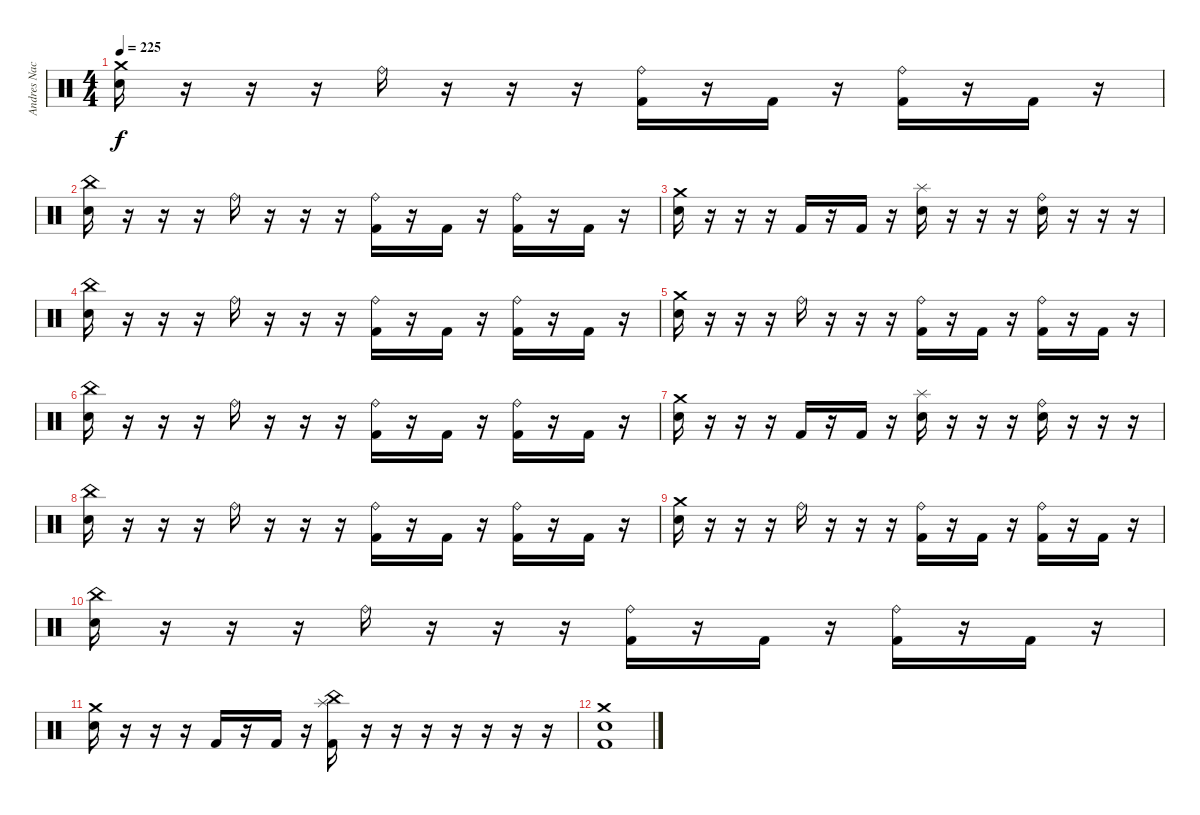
\track ("Andres Nacrur" "Andres Nac") {instrument percussion}
\staff {score}
\articulation defaults
\ts (4 4)
\tempo 225
\clef neutral
\ks c
("Crash medium (hit)" "Snare (hit) 2").16{dy f} r.16 r.16 r.16 "Ride (bell)".16 r.16 r.16 r.16 ("Ride (bell)" "Kick (hit) 2").16 r.16 "Kick (hit) 2".16 r.16 ("Ride (bell)" "Kick (hit) 2").16 r.16 "Kick (hit) 2".16 r.16 |
("China (hit)" "Snare (hit) 2").16 r.16 r.16 r.16 "Ride (bell)".16 r.16 r.16 r.16 ("Ride (bell)" "Kick (hit) 2").16 r.16 "Kick (hit) 2".16 r.16 ("Ride (bell)" "Kick (hit) 2").16 r.16 "Kick (hit) 2".16 r.16 |
("Crash medium (hit)" "Snare (hit) 2").16 r.16 r.16 r.16 "Kick (hit) 2".16 r.16 "Kick (hit) 2".16 r.16 ("Splash (hit)" "Snare (hit) 2").16 r.16 r.16 r.16 ("Ride (bell)" "Snare (hit) 2").16 r.16 r.16 r.16 |
("China (hit)" "Snare (hit) 2").16 r.16 r.16 r.16 "Ride (bell)".16 r.16 r.16 r.16 ("Ride (bell)" "Kick (hit) 2").16 r.16 "Kick (hit) 2".16 r.16 ("Ride (bell)" "Kick (hit) 2").16 r.16 "Kick (hit) 2".16 r.16 |
("Crash medium (hit)" "Snare (hit) 2").16 r.16 r.16 r.16 "Ride (bell)".16 r.16 r.16 r.16 ("Ride (bell)" "Kick (hit) 2").16 r.16 "Kick (hit) 2".16 r.16 ("Ride (bell)" "Kick (hit) 2").16 r.16 "Kick (hit) 2".16 r.16 |
("China (hit)" "Snare (hit) 2").16 r.16 r.16 r.16 "Ride (bell)".16 r.16 r.16 r.16 ("Ride (bell)" "Kick (hit) 2").16 r.16 "Kick (hit) 2".16 r.16 ("Ride (bell)" "Kick (hit) 2").16 r.16 "Kick (hit) 2".16 r.16 |
("Crash medium (hit)" "Snare (hit) 2").16 r.16 r.16 r.16 "Kick (hit) 2".16 r.16 "Kick (hit) 2".16 r.16 ("Splash (hit)" "Snare (hit) 2").16 r.16 r.16 r.16 ("Ride (bell)" "Snare (hit) 2").16 r.16 r.16 r.16 |
("China (hit)" "Snare (hit) 2").16 r.16 r.16 r.16 "Ride (bell)".16 r.16 r.16 r.16 ("Ride (bell)" "Kick (hit) 2").16 r.16 "Kick (hit) 2".16 r.16 ("Ride (bell)" "Kick (hit) 2").16 r.16 "Kick (hit) 2".16 r.16 |
("Crash medium (hit)" "Snare (hit) 2").16 r.16 r.16 r.16 "Ride (bell)".16 r.16 r.16 r.16 ("Ride (bell)" "Kick (hit) 2").16 r.16 "Kick (hit) 2".16 r.16 ("Ride (bell)" "Kick (hit) 2").16 r.16 "Kick (hit) 2".16 r.16 |
("China (hit)" "Snare (hit) 2").16 r.16 r.16 r.16 "Ride (bell)".16 r.16 r.16 r.16 ("Ride (bell)" "Kick (hit) 2").16 r.16 "Kick (hit) 2".16 r.16 ("Ride (bell)" "Kick (hit) 2").16 r.16 "Kick (hit) 2".16 r.16 |
("Crash medium (hit)" "Snare (hit) 2").16 r.16 r.16 r.16 "Kick (hit) 2".16 r.16 "Kick (hit) 2".16 r.16 ("Splash (hit)" "China (hit)" "Kick (hit) 2").16 r.16 r.16 r.16 r.16 r.16 r.16 r.16 |
("Crash medium (hit)" "Snare (hit) 2" "Kick (hit) 2").1
